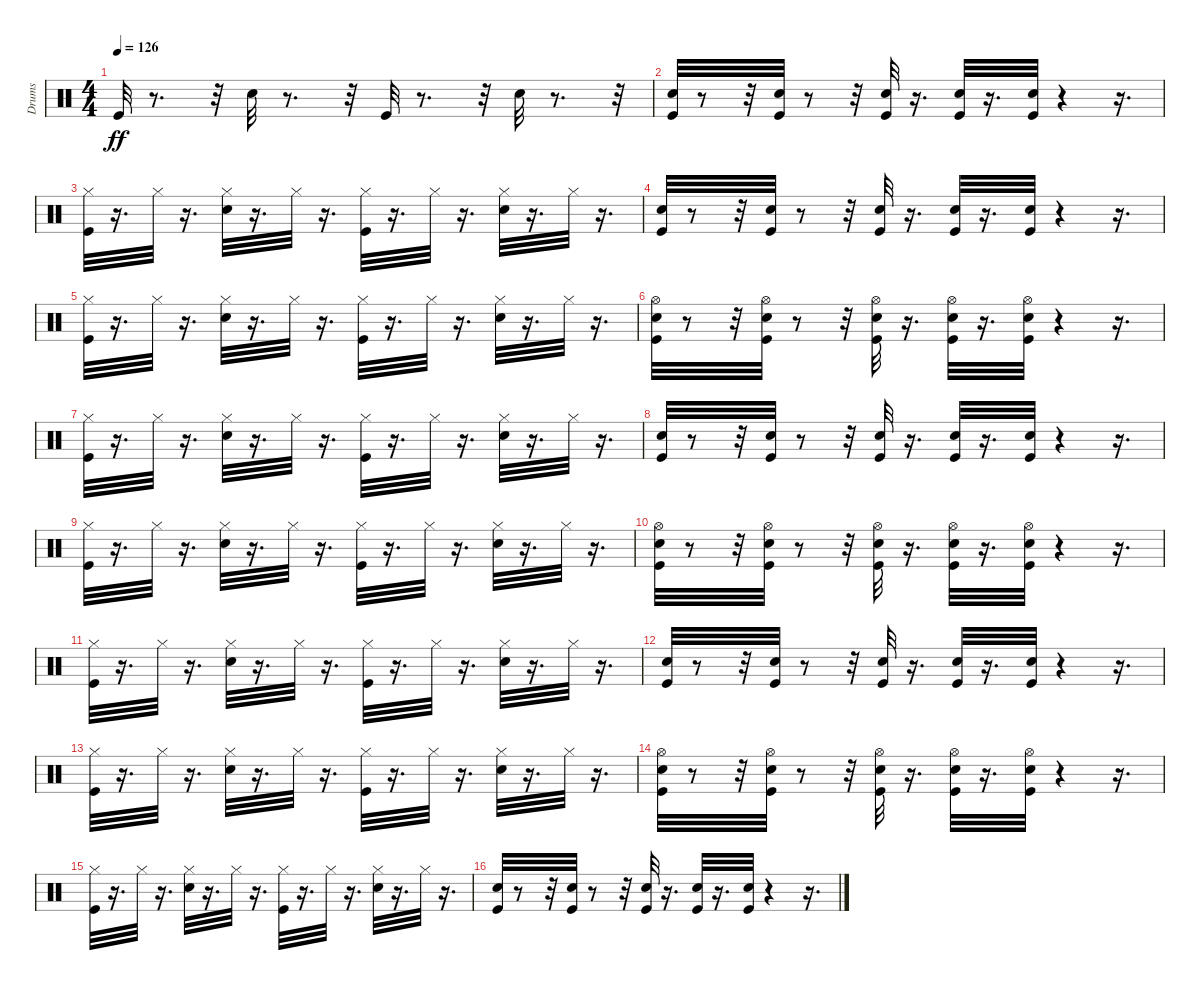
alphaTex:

\track ("Drums" "Drums") {instrument percussion}
\staff {score}
\articulation defaults
\ts (4 4)
\tempo 126
\clef neutral
\ks c "Kick (hit)".32{dy ff}
r.8{d} r.32 "Snare (hit) 2".32 r.8{d} r.32 "Kick (hit)".32 r.8{d} r.32 "Snare (hit) 2".32 r.8{d} r.32 |
("Kick (hit)" "Snare (hit) 2").32 r.8 r.32 ("Kick (hit)" "Snare (hit) 2").32 r.8 r.32 ("Kick (hit)" "Snare (hit) 2").32 r.16{d} ("Kick (hit)" "Snare (hit) 2").32 r.16{d} ("Kick (hit)" "Snare (hit) 2").32 r.4 r.16{d} |
("Kick (hit)" "Hi-Hat (closed)").32 r.16{d} "Hi-Hat (closed)".32 r.16{d} ("Snare (hit) 2" "Hi-Hat (closed)").32 r.16{d} "Hi-Hat (closed)".32 r.16{d} ("Kick (hit)" "Hi-Hat (closed)").32 r.16{d} "Hi-Hat (closed)".32 r.16{d} ("Snare (hit) 2" "Hi-Hat (closed)").32 r.16{d} "Hi-Hat (closed)".32 r.16{d} |
("Kick (hit)" "Snare (hit) 2").32 r.8 r.32 ("Kick (hit)" "Snare (hit) 2").32 r.8 r.32 ("Kick (hit)" "Snare (hit) 2").32 r.16{d} ("Kick (hit)" "Snare (hit) 2").32 r.16{d} ("Kick (hit)" "Snare (hit) 2").32 r.4 r.16{d} |
("Kick (hit)" "Hi-Hat (closed)").32 r.16{d} "Hi-Hat (closed)".32 r.16{d} ("Snare (hit) 2" "Hi-Hat (closed)").32 r.16{d} "Hi-Hat (closed)".32 r.16{d} ("Kick (hit)" "Hi-Hat (closed)").32 r.16{d} "Hi-Hat (closed)".32 r.16{d} ("Snare (hit) 2" "Hi-Hat (closed)").32 r.16{d} "Hi-Hat (closed)".32 r.16{d} |
("Kick (hit)" "Snare (hit) 2" "Hi-Hat (open)").32 r.8 r.32 ("Kick (hit)" "Snare (hit) 2" "Hi-Hat (open)").32 r.8 r.32 ("Kick (hit)" "Snare (hit) 2" "Hi-Hat (open)").32 r.16{d} ("Kick (hit)" "Snare (hit) 2" "Hi-Hat (open)").32 r.16{d} ("Kick (hit)" "Snare (hit) 2" "Hi-Hat (open)").32 r.4 r.16{d} |
("Kick (hit)" "Hi-Hat (closed)").32 r.16{d} "Hi-Hat (closed)".32 r.16{d} ("Snare (hit) 2" "Hi-Hat (closed)").32 r.16{d} "Hi-Hat (closed)".32 r.16{d} ("Kick (hit)" "Hi-Hat (closed)").32 r.16{d} "Hi-Hat (closed)".32 r.16{d} ("Snare (hit) 2" "Hi-Hat (closed)").32 r.16{d} "Hi-Hat (closed)".32 r.16{d} |
("Kick (hit)" "Snare (hit) 2").32 r.8 r.32 ("Kick (hit)" "Snare (hit) 2").32 r.8 r.32 ("Kick (hit)" "Snare (hit) 2").32 r.16{d} ("Kick (hit)" "Snare (hit) 2").32 r.16{d} ("Kick (hit)" "Snare (hit) 2").32 r.4 r.16{d} |
("Kick (hit)" "Hi-Hat (closed)").32 r.16{d} "Hi-Hat (closed)".32 r.16{d} ("Snare (hit) 2" "Hi-Hat (closed)").32 r.16{d} "Hi-Hat (closed)".32 r.16{d} ("Kick (hit)" "Hi-Hat (closed)").32 r.16{d} "Hi-Hat (closed)".32 r.16{d} ("Snare (hit) 2" "Hi-Hat (closed)").32 r.16{d} "Hi-Hat (closed)".32 r.16{d} |
("Kick (hit)" "Snare (hit) 2" "Hi-Hat (open)").32 r.8 r.32 ("Kick (hit)" "Snare (hit) 2" "Hi-Hat (open)").32 r.8 r.32 ("Kick (hit)" "Snare (hit) 2" "Hi-Hat (open)").32 r.16{d} ("Kick (hit)" "Snare (hit) 2" "Hi-Hat (open)").32 r.16{d} ("Kick (hit)" "Snare (hit) 2" "Hi-Hat (open)").32 r.4 r.16{d} |
("Kick (hit)" "Hi-Hat (closed)").32 r.16{d} "Hi-Hat (closed)".32 r.16{d} ("Snare (hit) 2" "Hi-Hat (closed)").32 r.16{d} "Hi-Hat (closed)".32 r.16{d} ("Kick (hit)" "Hi-Hat (closed)").32 r.16{d} "Hi-Hat (closed)".32 r.16{d} ("Snare (hit) 2" "Hi-Hat (closed)").32 r.16{d} "Hi-Hat (closed)".32 r.16{d} |
("Kick (hit)" "Snare (hit) 2").32 r.8 r.32 ("Kick (hit)" "Snare (hit) 2").32 r.8 r.32 ("Kick (hit)" "Snare (hit) 2").32 r.16{d} ("Kick (hit)" "Snare (hit) 2").32 r.16{d} ("Kick (hit)" "Snare (hit) 2").32 r.4 r.16{d} |
("Kick (hit)" "Hi-Hat (closed)").32 r.16{d} "Hi-Hat (closed)".32 r.16{d} ("Snare (hit) 2" "Hi-Hat (closed)").32 r.16{d} "Hi-Hat (closed)".32 r.16{d} ("Kick (hit)" "Hi-Hat (closed)").32 r.16{d} "Hi-Hat (closed)".32 r.16{d} ("Snare (hit) 2" "Hi-Hat (closed)").32 r.16{d} "Hi-Hat (closed)".32 r.16{d} |
("Kick (hit)" "Snare (hit) 2" "Hi-Hat (open)").32 r.8 r.32 ("Kick (hit)" "Snare (hit) 2" "Hi-Hat (open)").32 r.8 r.32 ("Kick (hit)" "Snare (hit) 2" "Hi-Hat (open)").32 r.16{d} ("Kick (hit)" "Snare (hit) 2" "Hi-Hat (open)").32 r.16{d} ("Kick (hit)" "Snare (hit) 2" "Hi-Hat (open)").32 r.4 r.16{d} |
("Kick (hit)" "Hi-Hat (closed)").32 r.16{d} "Hi-Hat (closed)".32 r.16{d} ("Snare (hit) 2" "Hi-Hat (closed)").32 r.16{d} "Hi-Hat (closed)".32 r.16{d} ("Kick (hit)" "Hi-Hat (closed)").32 r.16{d} "Hi-Hat (closed)".32 r.16{d} ("Snare (hit) 2" "Hi-Hat (closed)").32 r.16{d} "Hi-Hat (closed)".32 r.16{d} |
("Kick (hit)" "Snare (hit) 2").32 r.8 r.32 ("Kick (hit)" "Snare (hit) 2").32 r.8 r.32 ("Kick (hit)" "Snare (hit) 2").32 r.16{d} ("Kick (hit)" "Snare (hit) 2").32 r.16{d} ("Kick (hit)" "Snare (hit) 2").32 r.4 r.16{d}
